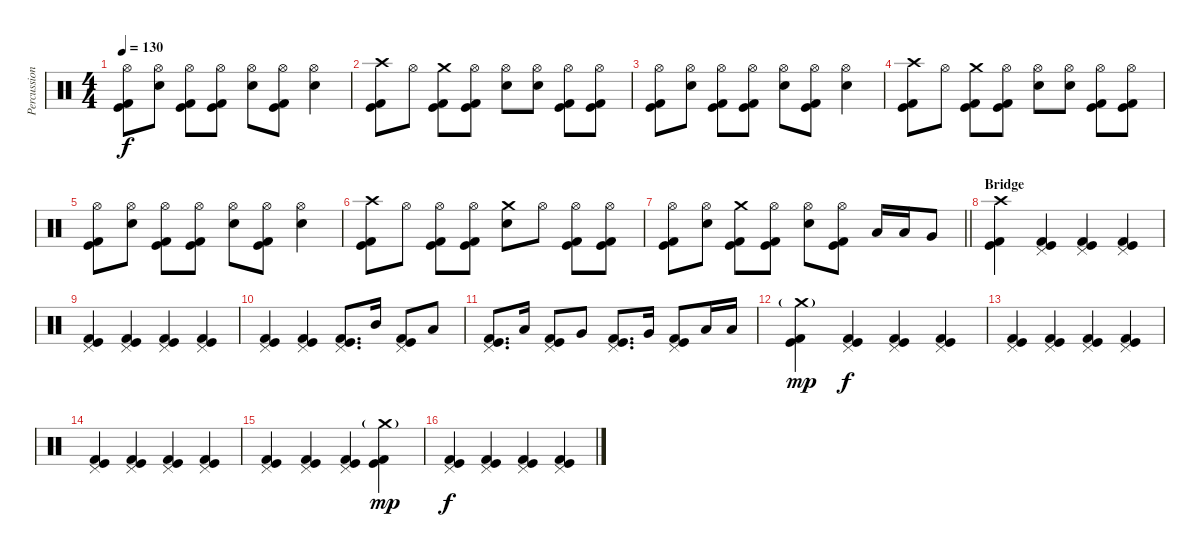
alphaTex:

\track ("Percussion" "Percussion") {instrument percussion}
\staff {score}
\articulation defaults
\ts (4 4)
\tempo 130
\clef neutral
\ks c
("Hi-Hat (open)" "Kick (hit)" "Kick (hit) 2").8{dy f} ("Hi-Hat (open)" "Electric Snare (hit)").8 ("Hi-Hat (open)" "Kick (hit)" "Kick (hit) 2").8 ("Hi-Hat (open)" "Kick (hit)" "Kick (hit) 2").8 ("Hi-Hat (open)" "Electric Snare (hit)").8 ("Hi-Hat (open)" "Kick (hit)" "Kick (hit) 2").8 ("Hi-Hat (open)" "Electric Snare (hit)").4 |
("Crash high (hit)" "Kick (hit)" "Kick (hit) 2").8 "Hi-Hat (open)".8 ("Crash medium (hit)" "Kick (hit)" "Kick (hit) 2").8 ("Hi-Hat (open)" "Kick (hit)" "Kick (hit) 2").8 ("Hi-Hat (open)" "Electric Snare (hit)").8 ("Hi-Hat (open)" "Electric Snare (hit)").8 ("Hi-Hat (open)" "Kick (hit)" "Kick (hit) 2").8 ("Hi-Hat (open)" "Kick (hit)" "Kick (hit) 2").8 |
("Hi-Hat (open)" "Kick (hit)" "Kick (hit) 2").8 ("Hi-Hat (open)" "Electric Snare (hit)").8 ("Hi-Hat (open)" "Kick (hit)" "Kick (hit) 2").8 ("Hi-Hat (open)" "Kick (hit)" "Kick (hit) 2").8 ("Hi-Hat (open)" "Electric Snare (hit)").8 ("Hi-Hat (open)" "Kick (hit)" "Kick (hit) 2").8 ("Hi-Hat (open)" "Electric Snare (hit)").4 |
("Crash high (hit)" "Kick (hit)" "Kick (hit) 2").8 "Hi-Hat (open)".8 ("Crash medium (hit)" "Kick (hit)" "Kick (hit) 2").8 ("Hi-Hat (open)" "Kick (hit)" "Kick (hit) 2").8 ("Hi-Hat (open)" "Electric Snare (hit)").8 ("Hi-Hat (open)" "Electric Snare (hit)").8 ("Hi-Hat (open)" "Kick (hit)" "Kick (hit) 2").8 ("Hi-Hat (open)" "Kick (hit)" "Kick (hit) 2").8 |
("Hi-Hat (open)" "Kick (hit)" "Kick (hit) 2").8 ("Hi-Hat (open)" "Electric Snare (hit)").8 ("Hi-Hat (open)" "Kick (hit)" "Kick (hit) 2").8 ("Hi-Hat (open)" "Kick (hit)" "Kick (hit) 2").8 ("Hi-Hat (open)" "Electric Snare (hit)").8 ("Hi-Hat (open)" "Kick (hit)" "Kick (hit) 2").8 ("Hi-Hat (open)" "Electric Snare (hit)").4 |
("Crash high (hit)" "Kick (hit)" "Kick (hit) 2").8 "Hi-Hat (open)".8 ("Hi-Hat (open)" "Kick (hit)" "Kick (hit) 2").8 ("Hi-Hat (open)" "Kick (hit)" "Kick (hit) 2").8 ("Crash medium (hit)" "Electric Snare (hit)").8 "Hi-Hat (open)".8 ("Hi-Hat (open)" "Kick (hit)" "Kick (hit) 2").8 ("Hi-Hat (open)" "Kick (hit)" "Kick (hit) 2").8 |
\barLineRight lightlight
("Hi-Hat (open)" "Kick (hit)" "Kick (hit) 2").8 ("Hi-Hat (open)" "Electric Snare (hit)").8 ("Crash medium (hit)" "Kick (hit)" "Kick (hit) 2").8 ("Hi-Hat (open)" "Kick (hit)" "Kick (hit) 2").8 ("Hi-Hat (open)" "Electric Snare (hit)").8 ("Hi-Hat (open)" "Kick (hit)" "Kick (hit) 2").8 "Low Tom (hit)".16 "Low Tom (hit)".16 "Very Low Tom (hit)".8 |
\section ("" "Bridge")
("Crash high (hit)" "Kick (hit)" "Kick (hit) 2").4 ("Pedal Hi-Hat (hit)" "Kick (hit)" "Kick (hit) 2").4 ("Pedal Hi-Hat (hit)" "Kick (hit)" "Kick (hit) 2").4 ("Pedal Hi-Hat (hit)" "Kick (hit)" "Kick (hit) 2").4 |
("Pedal Hi-Hat (hit)" "Kick (hit)" "Kick (hit) 2").4 ("Pedal Hi-Hat (hit)" "Kick (hit)" "Kick (hit) 2").4 ("Pedal Hi-Hat (hit)" "Kick (hit)" "Kick (hit) 2").4 ("Pedal Hi-Hat (hit)" "Kick (hit)" "Kick (hit) 2").4 |
("Pedal Hi-Hat (hit)" "Kick (hit)" "Kick (hit) 2").4 ("Pedal Hi-Hat (hit)" "Kick (hit)" "Kick (hit) 2").4 ("Pedal Hi-Hat (hit)" "Kick (hit)" "Kick (hit) 2").8{d} "Mid Tom (hit)".16 ("Pedal Hi-Hat (hit)" "Kick (hit)" "Kick (hit) 2").8 "Low Tom (hit)".8 |
("Pedal Hi-Hat (hit)" "Kick (hit)" "Kick (hit) 2").8{d} "Low Tom (hit)".16 ("Pedal Hi-Hat (hit)" "Kick (hit)" "Kick (hit) 2").8 "Very Low Tom (hit)".8 ("Pedal Hi-Hat (hit)" "Kick (hit)" "Kick (hit) 2").8{d} "Very Low Tom (hit)".16 ("Pedal Hi-Hat (hit)" "Kick (hit)" "Kick (hit) 2").8 "Low Floor Tom (hit)".16 "Low Floor Tom (hit)".16 |
("Crash medium (hit)"{g} "Kick (hit)" "Kick (hit) 2").4{dy mp} ("Pedal Hi-Hat (hit)" "Kick (hit)" "Kick (hit) 2").4{dy f} ("Pedal Hi-Hat (hit)" "Kick (hit)" "Kick (hit) 2").4 ("Pedal Hi-Hat (hit)" "Kick (hit)" "Kick (hit) 2").4 |
("Pedal Hi-Hat (hit)" "Kick (hit)" "Kick (hit) 2").4 ("Pedal Hi-Hat (hit)" "Kick (hit)" "Kick (hit) 2").4 ("Pedal Hi-Hat (hit)" "Kick (hit)" "Kick (hit) 2").4 ("Pedal Hi-Hat (hit)" "Kick (hit)" "Kick (hit) 2").4 |
("Pedal Hi-Hat (hit)" "Kick (hit)" "Kick (hit) 2").4 ("Pedal Hi-Hat (hit)" "Kick (hit)" "Kick (hit) 2").4 ("Pedal Hi-Hat (hit)" "Kick (hit)" "Kick (hit) 2").4 ("Pedal Hi-Hat (hit)" "Kick (hit)" "Kick (hit) 2").4 |
("Pedal Hi-Hat (hit)" "Kick (hit)" "Kick (hit) 2").4 ("Pedal Hi-Hat (hit)" "Kick (hit)" "Kick (hit) 2").4 ("Pedal Hi-Hat (hit)" "Kick (hit)" "Kick (hit) 2").4 ("Crash medium (hit)"{g} "Kick (hit)" "Kick (hit) 2").4{dy mp} |
("Pedal Hi-Hat (hit)" "Kick (hit)" "Kick (hit) 2").4{dy f} ("Pedal Hi-Hat (hit)" "Kick (hit)" "Kick (hit) 2").4 ("Pedal Hi-Hat (hit)" "Kick (hit)" "Kick (hit) 2").4 ("Pedal Hi-Hat (hit)" "Kick (hit)" "Kick (hit) 2").4
